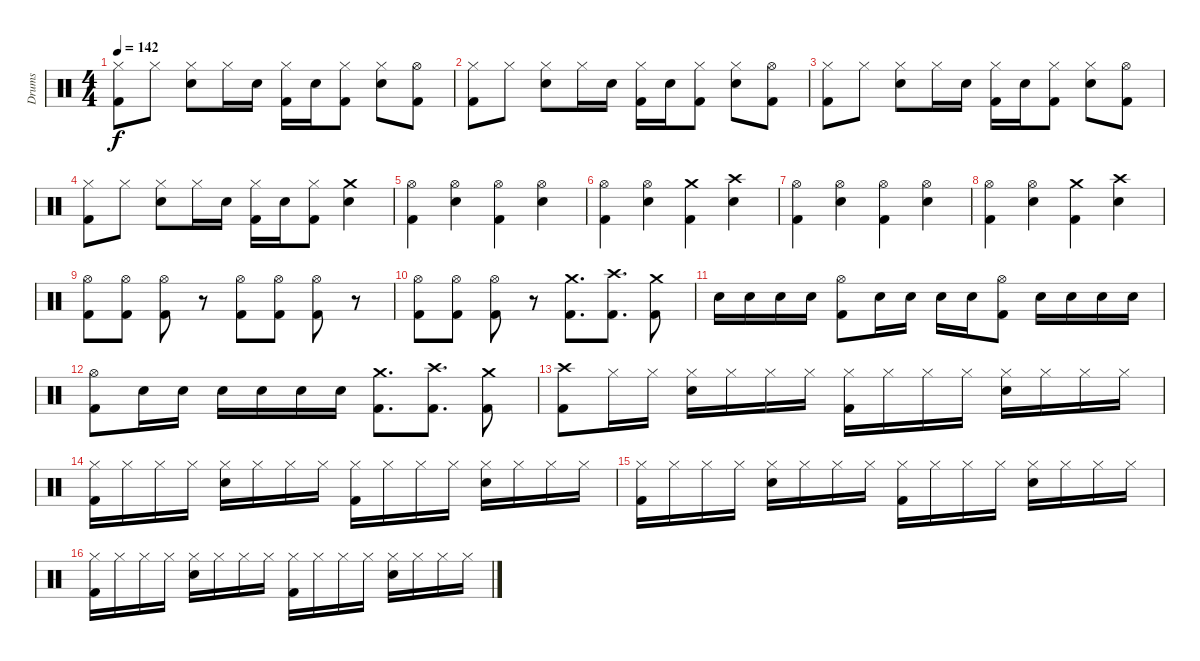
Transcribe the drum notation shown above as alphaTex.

\track ("Drums" "Drums") {instrument percussion}
\staff {score}
\articulation defaults
\ts (4 4)
\tempo 142
\clef neutral
\ks c
("Hi-Hat (closed)" "Kick (hit) 2").8{dy f} "Hi-Hat (closed)".8 ("Hi-Hat (closed)" "Electric Snare (hit)").8 "Hi-Hat (closed)".16 "Electric Snare (hit)".16 ("Hi-Hat (closed)" "Kick (hit) 2").16 "Electric Snare (hit)".16 ("Hi-Hat (closed)" "Kick (hit) 2").8 ("Hi-Hat (closed)" "Electric Snare (hit)").8 ("Hi-Hat (open)" "Kick (hit) 2").8 |
("Hi-Hat (closed)" "Kick (hit) 2").8 "Hi-Hat (closed)".8 ("Hi-Hat (closed)" "Electric Snare (hit)").8 "Hi-Hat (closed)".16 "Electric Snare (hit)".16 ("Hi-Hat (closed)" "Kick (hit) 2").16 "Electric Snare (hit)".16 ("Hi-Hat (closed)" "Kick (hit) 2").8 ("Hi-Hat (closed)" "Electric Snare (hit)").8 ("Hi-Hat (open)" "Kick (hit) 2").8 |
("Hi-Hat (closed)" "Kick (hit) 2").8 "Hi-Hat (closed)".8 ("Hi-Hat (closed)" "Electric Snare (hit)").8 "Hi-Hat (closed)".16 "Electric Snare (hit)".16 ("Hi-Hat (closed)" "Kick (hit) 2").16 "Electric Snare (hit)".16 ("Hi-Hat (closed)" "Kick (hit) 2").8 ("Hi-Hat (closed)" "Electric Snare (hit)").8 ("Hi-Hat (open)" "Kick (hit) 2").8 |
("Hi-Hat (closed)" "Kick (hit) 2").8 "Hi-Hat (closed)".8 ("Hi-Hat (closed)" "Electric Snare (hit)").8 "Hi-Hat (closed)".16 "Electric Snare (hit)".16 ("Hi-Hat (closed)" "Kick (hit) 2").16 "Electric Snare (hit)".16 ("Hi-Hat (closed)" "Kick (hit) 2").8 ("Crash medium (hit)" "Electric Snare (hit)").4 |
("Hi-Hat (open)" "Kick (hit) 2").4 ("Hi-Hat (open)" "Electric Snare (hit)").4 ("Hi-Hat (open)" "Kick (hit) 2").4 ("Hi-Hat (open)" "Electric Snare (hit)").4 |
("Hi-Hat (open)" "Kick (hit) 2").4 ("Hi-Hat (open)" "Electric Snare (hit)").4 ("Crash medium (hit)" "Kick (hit) 2").4 ("Crash high (hit)" "Electric Snare (hit)").4 |
("Hi-Hat (open)" "Kick (hit) 2").4 ("Hi-Hat (open)" "Electric Snare (hit)").4 ("Hi-Hat (open)" "Kick (hit) 2").4 ("Hi-Hat (open)" "Electric Snare (hit)").4 |
("Hi-Hat (open)" "Kick (hit) 2").4 ("Hi-Hat (open)" "Electric Snare (hit)").4 ("Crash medium (hit)" "Kick (hit) 2").4 ("Crash high (hit)" "Electric Snare (hit)").4 |
("Hi-Hat (open)" "Kick (hit) 2").8 ("Hi-Hat (open)" "Kick (hit) 2").8 ("Hi-Hat (open)" "Kick (hit) 2").8 r.8 ("Hi-Hat (open)" "Kick (hit) 2").8 ("Hi-Hat (open)" "Kick (hit) 2").8 ("Hi-Hat (open)" "Kick (hit) 2").8 r.8 |
("Hi-Hat (open)" "Kick (hit) 2").8 ("Hi-Hat (open)" "Kick (hit) 2").8 ("Hi-Hat (open)" "Kick (hit) 2").8 r.8 ("Crash medium (hit)" "Kick (hit) 2").8{d} ("Crash high (hit)" "Kick (hit) 2").8{d} ("Crash medium (hit)" "Kick (hit) 2").8 |
"Electric Snare (hit)".16 "Electric Snare (hit)".16 "Electric Snare (hit)".16 "Electric Snare (hit)".16 ("Hi-Hat (open)" "Kick (hit) 2").8 "Electric Snare (hit)".16 "Electric Snare (hit)".16 "Electric Snare (hit)".16 "Electric Snare (hit)".16 ("Hi-Hat (open)" "Kick (hit) 2").8 "Electric Snare (hit)".16 "Electric Snare (hit)".16 "Electric Snare (hit)".16 "Electric Snare (hit)".16 |
("Hi-Hat (open)" "Kick (hit) 2").8 "Electric Snare (hit)".16 "Electric Snare (hit)".16 "Electric Snare (hit)".16 "Electric Snare (hit)".16 "Electric Snare (hit)".16 "Electric Snare (hit)".16 ("Crash medium (hit)" "Kick (hit) 2").8{d} ("Crash high (hit)" "Kick (hit) 2").8{d} ("Crash medium (hit)" "Kick (hit) 2").8 |
("Crash high (hit)" "Kick (hit) 2").8 "Hi-Hat (closed)".16 "Hi-Hat (closed)".16 ("Hi-Hat (closed)" "Electric Snare (hit)").16 "Hi-Hat (closed)".16 "Hi-Hat (closed)".16 "Hi-Hat (closed)".16 ("Hi-Hat (closed)" "Kick (hit) 2").16 "Hi-Hat (closed)".16 "Hi-Hat (closed)".16 "Hi-Hat (closed)".16 ("Hi-Hat (closed)" "Electric Snare (hit)").16 "Hi-Hat (closed)".16 "Hi-Hat (closed)".16 "Hi-Hat (closed)".16 |
("Hi-Hat (closed)" "Kick (hit) 2").16 "Hi-Hat (closed)".16 "Hi-Hat (closed)".16 "Hi-Hat (closed)".16 ("Hi-Hat (closed)" "Electric Snare (hit)").16 "Hi-Hat (closed)".16 "Hi-Hat (closed)".16 "Hi-Hat (closed)".16 ("Hi-Hat (closed)" "Kick (hit) 2").16 "Hi-Hat (closed)".16 "Hi-Hat (closed)".16 "Hi-Hat (closed)".16 ("Hi-Hat (closed)" "Electric Snare (hit)").16 "Hi-Hat (closed)".16 "Hi-Hat (closed)".16 "Hi-Hat (closed)".16 |
("Hi-Hat (closed)" "Kick (hit) 2").16 "Hi-Hat (closed)".16 "Hi-Hat (closed)".16 "Hi-Hat (closed)".16 ("Hi-Hat (closed)" "Electric Snare (hit)").16 "Hi-Hat (closed)".16 "Hi-Hat (closed)".16 "Hi-Hat (closed)".16 ("Hi-Hat (closed)" "Kick (hit) 2").16 "Hi-Hat (closed)".16 "Hi-Hat (closed)".16 "Hi-Hat (closed)".16 ("Hi-Hat (closed)" "Electric Snare (hit)").16 "Hi-Hat (closed)".16 "Hi-Hat (closed)".16 "Hi-Hat (closed)".16 |
("Hi-Hat (closed)" "Kick (hit) 2").16 "Hi-Hat (closed)".16 "Hi-Hat (closed)".16 "Hi-Hat (closed)".16 ("Hi-Hat (closed)" "Electric Snare (hit)").16 "Hi-Hat (closed)".16 "Hi-Hat (closed)".16 "Hi-Hat (closed)".16 ("Hi-Hat (closed)" "Kick (hit) 2").16 "Hi-Hat (closed)".16 "Hi-Hat (closed)".16 "Hi-Hat (closed)".16 ("Hi-Hat (closed)" "Electric Snare (hit)").16 "Hi-Hat (closed)".16 "Hi-Hat (closed)".16 "Hi-Hat (closed)".16
